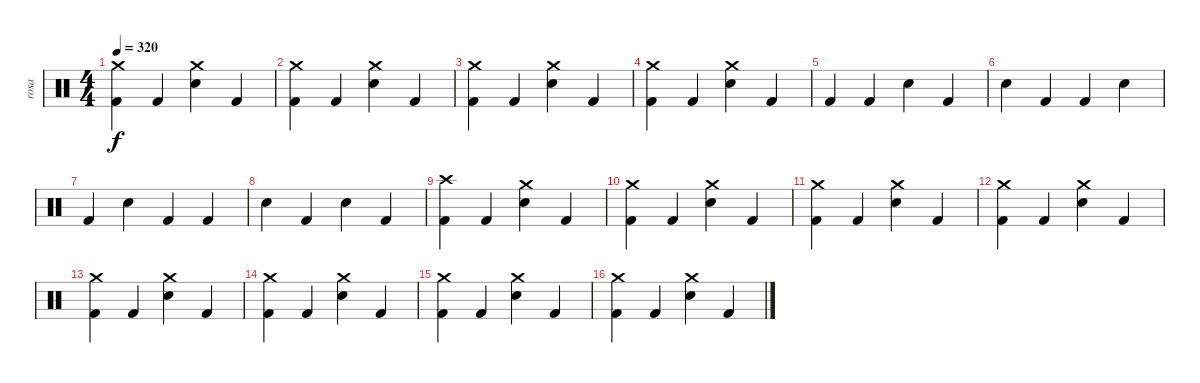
\track ("rosa" "rosa") {instrument percussion}
\staff {score}
\articulation defaults
\ts (4 4)
\tempo 320
\clef neutral
\ks c
("Crash medium (hit)" "Kick (hit) 2").4{dy f} "Kick (hit) 2".4 ("Crash medium (hit)" "Electric Snare (hit)").4 "Kick (hit) 2".4 |
("Crash medium (hit)" "Kick (hit) 2").4 "Kick (hit) 2".4 ("Crash medium (hit)" "Electric Snare (hit)").4 "Kick (hit) 2".4 |
("Crash medium (hit)" "Kick (hit) 2").4 "Kick (hit) 2".4 ("Crash medium (hit)" "Electric Snare (hit)").4 "Kick (hit) 2".4 |
("Crash medium (hit)" "Kick (hit) 2").4 "Kick (hit) 2".4 ("Crash medium (hit)" "Electric Snare (hit)").4 "Kick (hit) 2".4 |
"Kick (hit) 2".4 "Kick (hit) 2".4 "Electric Snare (hit)".4 "Kick (hit) 2".4 |
"Electric Snare (hit)".4 "Kick (hit) 2".4 "Kick (hit) 2".4 "Electric Snare (hit)".4 |
"Kick (hit) 2".4 "Electric Snare (hit)".4 "Kick (hit) 2".4 "Kick (hit) 2".4 |
"Electric Snare (hit)".4 "Kick (hit) 2".4 "Electric Snare (hit)".4 "Kick (hit) 2".4 |
("Crash high (hit)" "Kick (hit) 2").4 "Kick (hit) 2".4 ("Crash medium (hit)" "Electric Snare (hit)").4 "Kick (hit) 2".4 |
("Crash medium (hit)" "Kick (hit) 2").4 "Kick (hit) 2".4 ("Crash medium (hit)" "Electric Snare (hit)").4 "Kick (hit) 2".4 |
("Crash medium (hit)" "Kick (hit) 2").4 "Kick (hit) 2".4 ("Crash medium (hit)" "Electric Snare (hit)").4 "Kick (hit) 2".4 |
("Crash medium (hit)" "Kick (hit) 2").4 "Kick (hit) 2".4 ("Crash medium (hit)" "Electric Snare (hit)").4 "Kick (hit) 2".4 |
("Crash medium (hit)" "Kick (hit) 2").4 "Kick (hit) 2".4 ("Crash medium (hit)" "Electric Snare (hit)").4 "Kick (hit) 2".4 |
("Crash medium (hit)" "Kick (hit) 2").4 "Kick (hit) 2".4 ("Crash medium (hit)" "Electric Snare (hit)").4 "Kick (hit) 2".4 |
("Crash medium (hit)" "Kick (hit) 2").4 "Kick (hit) 2".4 ("Crash medium (hit)" "Electric Snare (hit)").4 "Kick (hit) 2".4 |
("Crash medium (hit)" "Kick (hit) 2").4 "Kick (hit) 2".4 ("Crash medium (hit)" "Electric Snare (hit)").4 "Kick (hit) 2".4
